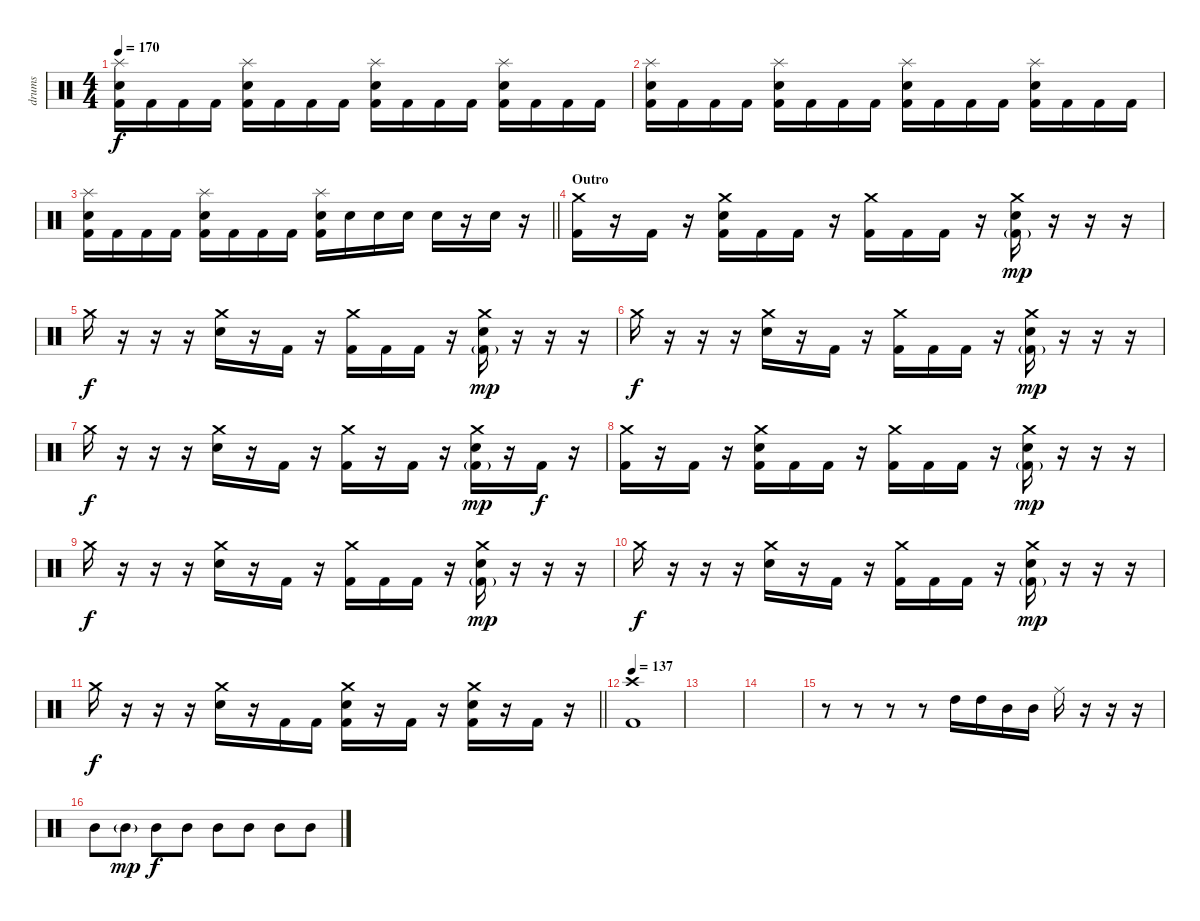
\track ("drums" "drums") {instrument percussion}
\staff {score}
\articulation defaults
\ts (4 4)
\tempo 170
\clef neutral
\ks c
("Splash (hit)" "Snare (hit) 2" "Kick (hit) 2").16{dy f} "Kick (hit) 2".16 "Kick (hit) 2".16 "Kick (hit) 2".16 ("Splash (hit)" "Snare (hit) 2" "Kick (hit) 2").16 "Kick (hit) 2".16 "Kick (hit) 2".16 "Kick (hit) 2".16 ("Splash (hit)" "Snare (hit) 2" "Kick (hit) 2").16 "Kick (hit) 2".16 "Kick (hit) 2".16 "Kick (hit) 2".16 ("Splash (hit)" "Snare (hit) 2" "Kick (hit) 2").16 "Kick (hit) 2".16 "Kick (hit) 2".16 "Kick (hit) 2".16 |
("Splash (hit)" "Snare (hit) 2" "Kick (hit) 2").16 "Kick (hit) 2".16 "Kick (hit) 2".16 "Kick (hit) 2".16 ("Splash (hit)" "Snare (hit) 2" "Kick (hit) 2").16 "Kick (hit) 2".16 "Kick (hit) 2".16 "Kick (hit) 2".16 ("Splash (hit)" "Snare (hit) 2" "Kick (hit) 2").16 "Kick (hit) 2".16 "Kick (hit) 2".16 "Kick (hit) 2".16 ("Splash (hit)" "Snare (hit) 2" "Kick (hit) 2").16 "Kick (hit) 2".16 "Kick (hit) 2".16 "Kick (hit) 2".16 |
\barLineRight lightlight
("Splash (hit)" "Snare (hit) 2" "Kick (hit) 2").16 "Kick (hit) 2".16 "Kick (hit) 2".16 "Kick (hit) 2".16 ("Splash (hit)" "Snare (hit) 2" "Kick (hit) 2").16 "Kick (hit) 2".16 "Kick (hit) 2".16 "Kick (hit) 2".16 ("Splash (hit)" "Snare (hit) 2" "Kick (hit) 2").16 "Snare (hit) 2".16 "Snare (hit) 2".16 "Snare (hit) 2".16 "Snare (hit) 2".16 r.16 "Snare (hit) 2".16 r.16 |
\section ("" "Outro")
("Crash medium (hit)" "Kick (hit) 2").16 r.16 "Kick (hit) 2".16 r.16 ("Crash medium (hit)" "Snare (hit) 2" "Kick (hit) 2").16 "Kick (hit) 2".16 "Kick (hit) 2".16 r.16 ("Crash medium (hit)" "Kick (hit) 2").16 "Kick (hit) 2".16 "Kick (hit) 2".16 r.16 ("Crash medium (hit)" "Snare (hit) 2" "Kick (hit) 2"{g}).16{dy mp} r.16 r.16 r.16 |
"Crash medium (hit)".16{dy f} r.16 r.16 r.16 ("Crash medium (hit)" "Snare (hit) 2").16 r.16 "Kick (hit) 2".16 r.16 ("Crash medium (hit)" "Kick (hit) 2").16 "Kick (hit) 2".16 "Kick (hit) 2".16 r.16 ("Crash medium (hit)" "Snare (hit) 2" "Kick (hit) 2"{g}).16{dy mp} r.16 r.16 r.16 |
"Crash medium (hit)".16{dy f} r.16 r.16 r.16 ("Crash medium (hit)" "Snare (hit) 2").16 r.16 "Kick (hit) 2".16 r.16 ("Crash medium (hit)" "Kick (hit) 2").16 "Kick (hit) 2".16 "Kick (hit) 2".16 r.16 ("Crash medium (hit)" "Snare (hit) 2" "Kick (hit) 2"{g}).16{dy mp} r.16 r.16 r.16 |
"Crash medium (hit)".16{dy f} r.16 r.16 r.16 ("Crash medium (hit)" "Snare (hit) 2").16 r.16 "Kick (hit) 2".16 r.16 ("Crash medium (hit)" "Kick (hit) 2").16 r.16 "Kick (hit) 2".16 r.16 ("Crash medium (hit)" "Snare (hit) 2" "Kick (hit) 2"{g}).16{dy mp} r.16 "Kick (hit) 2".16{dy f} r.16 |
("Crash medium (hit)" "Kick (hit) 2").16 r.16 "Kick (hit) 2".16 r.16 ("Crash medium (hit)" "Snare (hit) 2" "Kick (hit) 2").16 "Kick (hit) 2".16 "Kick (hit) 2".16 r.16 ("Crash medium (hit)" "Kick (hit) 2").16 "Kick (hit) 2".16 "Kick (hit) 2".16 r.16 ("Crash medium (hit)" "Snare (hit) 2" "Kick (hit) 2"{g}).16{dy mp} r.16 r.16 r.16 |
"Crash medium (hit)".16{dy f} r.16 r.16 r.16 ("Crash medium (hit)" "Snare (hit) 2").16 r.16 "Kick (hit) 2".16 r.16 ("Crash medium (hit)" "Kick (hit) 2").16 "Kick (hit) 2".16 "Kick (hit) 2".16 r.16 ("Crash medium (hit)" "Snare (hit) 2" "Kick (hit) 2"{g}).16{dy mp} r.16 r.16 r.16 |
"Crash medium (hit)".16{dy f} r.16 r.16 r.16 ("Crash medium (hit)" "Snare (hit) 2").16 r.16 "Kick (hit) 2".16 r.16 ("Crash medium (hit)" "Kick (hit) 2").16 "Kick (hit) 2".16 "Kick (hit) 2".16 r.16 ("Crash medium (hit)" "Snare (hit) 2" "Kick (hit) 2"{g}).16{dy mp} r.16 r.16 r.16 |
\barLineRight lightlight "Crash medium (hit)".16{dy f}
r.16 r.16 r.16 ("Crash medium (hit)" "Snare (hit) 2").16 r.16 "Kick (hit) 2".16 "Kick (hit) 2".16 ("Crash medium (hit)" "Snare (hit) 2" "Kick (hit) 2").16 r.16 "Kick (hit) 2".16 r.16 ("Crash medium (hit)" "Snare (hit) 2" "Kick (hit) 2").16 r.16 "Kick (hit) 2".16 r.16 |
\tempo 137
("Crash high (hit)" "Kick (hit) 2").1 |
|
|
r.8 r.8 r.8 r.8 "High Tom (hit)".16 "High Tom (hit)".16 "Mid Tom (hit)".16 "Mid Tom (hit)".16 "Ride (middle)".16 r.16 r.16 r.16 |
"Mid Tom (hit)".8 "Mid Tom (hit)"{g}.8{dy mp} "Mid Tom (hit)".8{dy f} "Mid Tom (hit)".8 "Mid Tom (hit)".8 "Mid Tom (hit)".8 "Mid Tom (hit)".8 "Mid Tom (hit)".8
